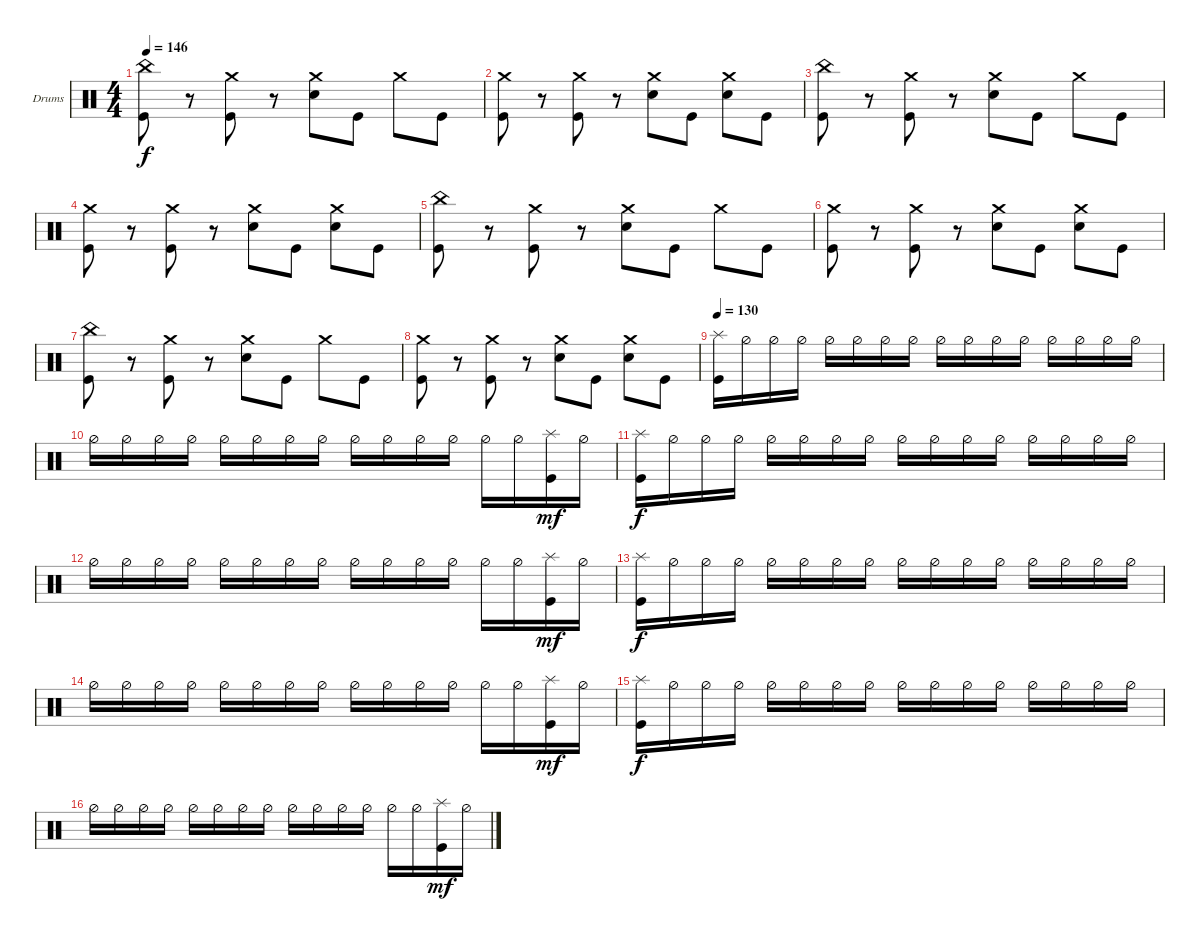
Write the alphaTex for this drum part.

\bracketExtendMode groupsimilarinstruments
\firstSystemTrackNameOrientation horizontal
\otherSystemsTrackNameOrientation horizontal
\track ("Drumkit" "Drums") {instrument percussion}
\staff {score}
\articulation defaults
\ts (4 4)
\tempo 146
\clef neutral
\scale
0.333333
\ks c
("Kick (hit)" "China (hit)").8{dy f} r.8 ("Crash medium (hit)" "Kick (hit)").8 r.8 ("Crash medium (hit)" "Snare (hit) 2").8 "Kick (hit)".8 "Crash medium (hit)".8 "Kick (hit)".8 |
\scale
0.333333 ("Kick (hit)" "Crash medium (hit)").8 r.8 ("Crash medium (hit)" "Kick (hit)").8 r.8 ("Crash medium (hit)" "Snare (hit) 2").8 "Kick (hit)".8 ("Crash medium (hit)" "Snare (hit) 2").8 "Kick (hit)".8 |
("Kick (hit)" "China (hit)").8 r.8 ("Crash medium (hit)" "Kick (hit)").8 r.8 ("Crash medium (hit)" "Snare (hit) 2").8 "Kick (hit)".8 "Crash medium (hit)".8 "Kick (hit)".8 |
\scale
0.333333 ("Kick (hit)" "Crash medium (hit)").8 r.8 ("Crash medium (hit)" "Kick (hit)").8 r.8 ("Crash medium (hit)" "Snare (hit) 2").8 "Kick (hit)".8 ("Crash medium (hit)" "Snare (hit) 2").8 "Kick (hit)".8 |
\scale
0.333333 ("Kick (hit)" "China (hit)").8 r.8 ("Crash medium (hit)" "Kick (hit)").8 r.8 ("Crash medium (hit)" "Snare (hit) 2").8 "Kick (hit)".8 "Crash medium (hit)".8 "Kick (hit)".8 |
\scale
0.333333 ("Kick (hit)" "Crash medium (hit)").8 r.8 ("Crash medium (hit)" "Kick (hit)").8 r.8 ("Crash medium (hit)" "Snare (hit) 2").8 "Kick (hit)".8 ("Crash medium (hit)" "Snare (hit) 2").8 "Kick (hit)".8 |
\scale
0.333333 ("Kick (hit)" "China (hit)").8 r.8 ("Crash medium (hit)" "Kick (hit)").8 r.8 ("Crash medium (hit)" "Snare (hit) 2").8 "Kick (hit)".8 "Crash medium (hit)".8 "Kick (hit)".8 |
\scale
0.333333 ("Kick (hit)" "Crash medium (hit)").8 r.8 ("Crash medium (hit)" "Kick (hit)").8 r.8 ("Crash medium (hit)" "Snare (hit) 2").8 "Kick (hit)".8 ("Crash medium (hit)" "Snare (hit) 2").8 "Kick (hit)".8 |
\tempo 130
\scale
0.333333 ("Splash (hit)" "Kick (hit)").16 "Hi-Hat (half)".16 "Hi-Hat (half)".16 "Hi-Hat (half)".16 "Hi-Hat (half)".16 "Hi-Hat (half)".16 "Hi-Hat (half)".16 "Hi-Hat (half)".16 "Hi-Hat (half)".16 "Hi-Hat (half)".16 "Hi-Hat (half)".16 "Hi-Hat (half)".16 "Hi-Hat (half)".16 "Hi-Hat (half)".16 "Hi-Hat (half)".16 "Hi-Hat (half)".16 |
\scale
0.333333 "Hi-Hat (half)".16 "Hi-Hat (half)".16 "Hi-Hat (half)".16 "Hi-Hat (half)".16 "Hi-Hat (half)".16 "Hi-Hat (half)".16 "Hi-Hat (half)".16 "Hi-Hat (half)".16 "Hi-Hat (half)".16 "Hi-Hat (half)".16 "Hi-Hat (half)".16 "Hi-Hat (half)".16 "Hi-Hat (half)".16 "Hi-Hat (half)".16 ("Kick (hit)" "Splash (hit)").16{dy mf} "Hi-Hat (half)".16 |
\scale
0.333333 ("Splash (hit)" "Kick (hit)").16{dy f} "Hi-Hat (half)".16 "Hi-Hat (half)".16 "Hi-Hat (half)".16 "Hi-Hat (half)".16 "Hi-Hat (half)".16 "Hi-Hat (half)".16 "Hi-Hat (half)".16 "Hi-Hat (half)".16 "Hi-Hat (half)".16 "Hi-Hat (half)".16 "Hi-Hat (half)".16 "Hi-Hat (half)".16 "Hi-Hat (half)".16 "Hi-Hat (half)".16 "Hi-Hat (half)".16 |
\scale
0.333333 "Hi-Hat (half)".16 "Hi-Hat (half)".16 "Hi-Hat (half)".16 "Hi-Hat (half)".16 "Hi-Hat (half)".16 "Hi-Hat (half)".16 "Hi-Hat (half)".16 "Hi-Hat (half)".16 "Hi-Hat (half)".16 "Hi-Hat (half)".16 "Hi-Hat (half)".16 "Hi-Hat (half)".16 "Hi-Hat (half)".16 "Hi-Hat (half)".16 ("Kick (hit)" "Splash (hit)").16{dy mf} "Hi-Hat (half)".16 |
\scale
0.333333 ("Splash (hit)" "Kick (hit)").16{dy f} "Hi-Hat (half)".16 "Hi-Hat (half)".16 "Hi-Hat (half)".16 "Hi-Hat (half)".16 "Hi-Hat (half)".16 "Hi-Hat (half)".16 "Hi-Hat (half)".16 "Hi-Hat (half)".16 "Hi-Hat (half)".16 "Hi-Hat (half)".16 "Hi-Hat (half)".16 "Hi-Hat (half)".16 "Hi-Hat (half)".16 "Hi-Hat (half)".16 "Hi-Hat (half)".16 |
\scale
0.333333 "Hi-Hat (half)".16 "Hi-Hat (half)".16 "Hi-Hat (half)".16 "Hi-Hat (half)".16 "Hi-Hat (half)".16 "Hi-Hat (half)".16 "Hi-Hat (half)".16 "Hi-Hat (half)".16 "Hi-Hat (half)".16 "Hi-Hat (half)".16 "Hi-Hat (half)".16 "Hi-Hat (half)".16 "Hi-Hat (half)".16 "Hi-Hat (half)".16 ("Kick (hit)" "Splash (hit)").16{dy mf} "Hi-Hat (half)".16 |
\scale
0.333333 ("Splash (hit)" "Kick (hit)").16{dy f} "Hi-Hat (half)".16 "Hi-Hat (half)".16 "Hi-Hat (half)".16 "Hi-Hat (half)".16 "Hi-Hat (half)".16 "Hi-Hat (half)".16 "Hi-Hat (half)".16 "Hi-Hat (half)".16 "Hi-Hat (half)".16 "Hi-Hat (half)".16 "Hi-Hat (half)".16 "Hi-Hat (half)".16 "Hi-Hat (half)".16 "Hi-Hat (half)".16 "Hi-Hat (half)".16 |
\scale
0.333333 "Hi-Hat (half)".16 "Hi-Hat (half)".16 "Hi-Hat (half)".16 "Hi-Hat (half)".16 "Hi-Hat (half)".16 "Hi-Hat (half)".16 "Hi-Hat (half)".16 "Hi-Hat (half)".16 "Hi-Hat (half)".16 "Hi-Hat (half)".16 "Hi-Hat (half)".16 "Hi-Hat (half)".16 "Hi-Hat (half)".16 "Hi-Hat (half)".16 ("Kick (hit)" "Splash (hit)").16{dy mf} "Hi-Hat (half)".16
